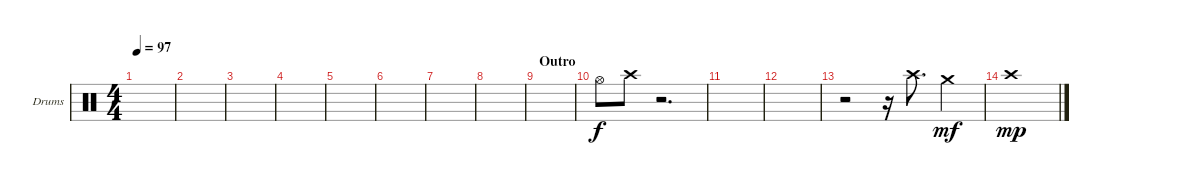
\bracketExtendMode groupsimilarinstruments
\firstSystemTrackNameOrientation horizontal
\otherSystemsTrackNameOrientation horizontal
\track ("OH" "Drums") {instrument percussion}
\staff {score}
\articulation defaults
\ts (4 4)
\tempo 97
\clef neutral
\ks c
|
|
|
|
|
|
|
|
\section ("" "Outro")
|
"Hi-Hat (open)".8 "Crash high (hit)".8 r.2{d} |
|
|
r.2 r.16 "Crash high (hit)".8{d} "Crash medium (hit)".4{dy mf} |
"Crash high (hit)".1{dy mp}
